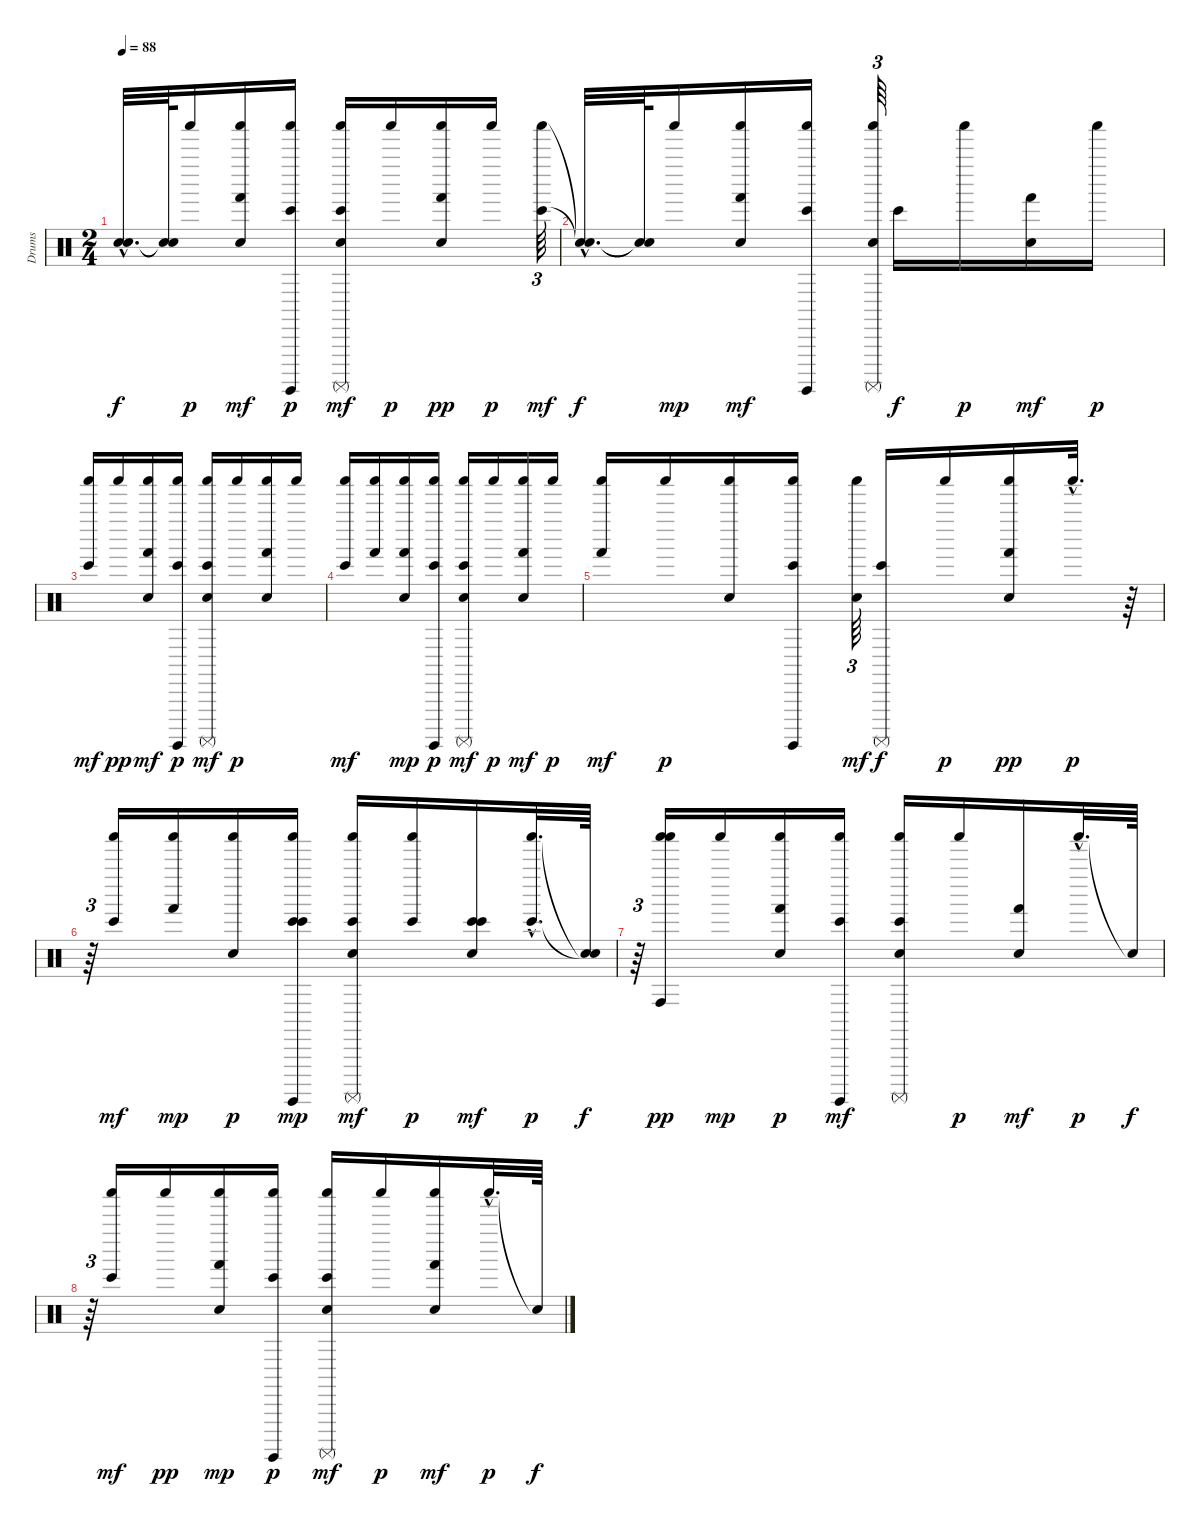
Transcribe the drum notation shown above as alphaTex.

\track ("Drums" "Drums") {instrument percussion}
\staff {score}
\articulation defaults
\ts (2 4)
\tempo 88
\clef neutral
\ks c
("Snare (hit)"{hac t} "Snare (hit)"{hac t}).32{d dy f} ("Snare (hit)"{t} "Snare (hit)"{t}).64 "Shaker (hit)".16{dy p} ("Shaker (hit)" "Hand Clap (hit)" "Hand (hit)").16{dy mf} ("Bongo High (hit)" "Shaker (hit)" "Surdo (hit)").16{dy p} ("Hand Clap (hit)" "Shaker (hit)" "Bongo High (hit)" "Surdo (mute)").16{dy mf} "Shaker (hit)".16{dy p} ("Hand Clap (hit)" "Hand (hit)" "Shaker (hit)").16{dy pp} "Shaker (hit)".16{dy p} ("Bongo High (hit)" "Shaker (hit)").64{tu (3 2) dy mf} |
("Snare (hit)"{hac t} "Snare (hit)"{hac t}).32{d dy f} ("Snare (hit)"{t} "Snare (hit)"{t}).64 "Shaker (hit)".16{dy mp} ("Hand Clap (hit)" "Shaker (hit)" "Hand (hit)").16{dy mf} ("Surdo (hit)" "Shaker (hit)" "Bongo High (hit)").16 ("Hand Clap (hit)" "Shaker (hit)" "Surdo (mute)").64{tu (3 2)} "Bongo High (hit)".16{dy f} "Shaker (hit)".16{dy p} ("Hand Clap (hit)" "Hand (hit)").16{dy mf} "Shaker (hit)".16{dy p} |
("Shaker (hit)" "Bongo High (hit)").16{dy mf} "Shaker (hit)".16{dy pp} ("Hand Clap (hit)" "Shaker (hit)" "Hand (hit)").16{dy mf} ("Surdo (hit)" "Shaker (hit)" "Bongo High (hit)").16{dy p} ("Surdo (mute)" "Hand Clap (hit)" "Shaker (hit)" "Bongo High (hit)").16{dy mf} "Shaker (hit)".16{dy p} ("Hand Clap (hit)" "Shaker (hit)" "Hand (hit)").16 "Shaker (hit)".16 |
("Shaker (hit)" "Bongo High (hit)").16{dy mf} ("Shaker (hit)" "Hand (hit)").16 ("Hand Clap (hit)" "Shaker (hit)" "Hand (hit)").16{dy mp} ("Shaker (hit)" "Bongo High (hit)" "Surdo (hit)").16{dy p} ("Hand Clap (hit)" "Shaker (hit)" "Bongo High (hit)" "Surdo (mute)").16{dy mf} "Shaker (hit)".16{dy p} ("Shaker (hit)" "Hand (hit)" "Hand Clap (hit)").16{dy mf} "Shaker (hit)".16{dy p} |
("Shaker (hit)" "Hand (hit)").16{dy mf} "Shaker (hit)".16{dy p} ("Hand Clap (hit)" "Shaker (hit)").16 ("Shaker (hit)" "Bongo High (hit)" "Surdo (hit)").16 ("Hand Clap (hit)" "Shaker (hit)").64{tu (3 2) dy mf} ("Bongo High (hit)" "Surdo (mute)").16{dy f} "Shaker (hit)".16{dy p} ("Hand Clap (hit)" "Shaker (hit)" "Hand (hit)").16{dy pp} "Shaker (hit)"{hac}.32{d dy p} r.64 |
r.64{tu (3 2)} ("Shaker (hit)" "Bongo High (hit)").16{dy mf} ("Shaker (hit)" "Hand (hit)").16{dy mp} ("Hand Clap (hit)" "Shaker (hit)").16{dy p} ("Shaker (hit)" "Surdo (hit)" "Bongo High (hit)" "Bongo High (hit)").16{dy mp} ("Shaker (hit)" "Hand Clap (hit)" "Bongo High (hit)" "Surdo (mute)").16{dy mf} ("Shaker (hit)" "Bongo High (hit)").16{dy p} ("Bongo High (hit)" "Hand Clap (hit)" "Bongo High (hit)").16{dy mf} ("Shaker (hit)"{hac} "Bongo High (hit)"{hac}).32{d dy p} ("Snare (hit)"{t} "Snare (hit)"{t}).64{dy f} |
r.64{tu (3 2)} ("Shaker (hit)" "Shaker (hit)" "Conga high (hit)").16{dy pp} "Shaker (hit)".16{dy mp} ("Hand Clap (hit)" "Hand (hit)" "Shaker (hit)").16{dy p} ("Shaker (hit)" "Bongo High (hit)" "Surdo (hit)").16{dy mf} ("Hand Clap (hit)" "Shaker (hit)" "Bongo High (hit)" "Surdo (mute)").16 "Shaker (hit)".16{dy p} ("Hand Clap (hit)" "Hand (hit)").16{dy mf} "Shaker (hit)"{hac}.32{d dy p} "Snare (hit)"{t}.64{dy f} |
r.64{tu (3 2)} ("Shaker (hit)" "Bongo High (hit)").16{dy mf} "Shaker (hit)".16{dy pp} ("Shaker (hit)" "Hand Clap (hit)" "Hand (hit)").16{dy mp} ("Bongo High (hit)" "Shaker (hit)" "Surdo (hit)").16{dy p} ("Hand Clap (hit)" "Shaker (hit)" "Bongo High (hit)" "Surdo (mute)").16{dy mf} "Shaker (hit)".16{dy p} ("Hand Clap (hit)" "Shaker (hit)" "Hand (hit)").16{dy mf} "Shaker (hit)"{hac}.32{d dy p} "Snare (hit)"{t}.64{dy f}
